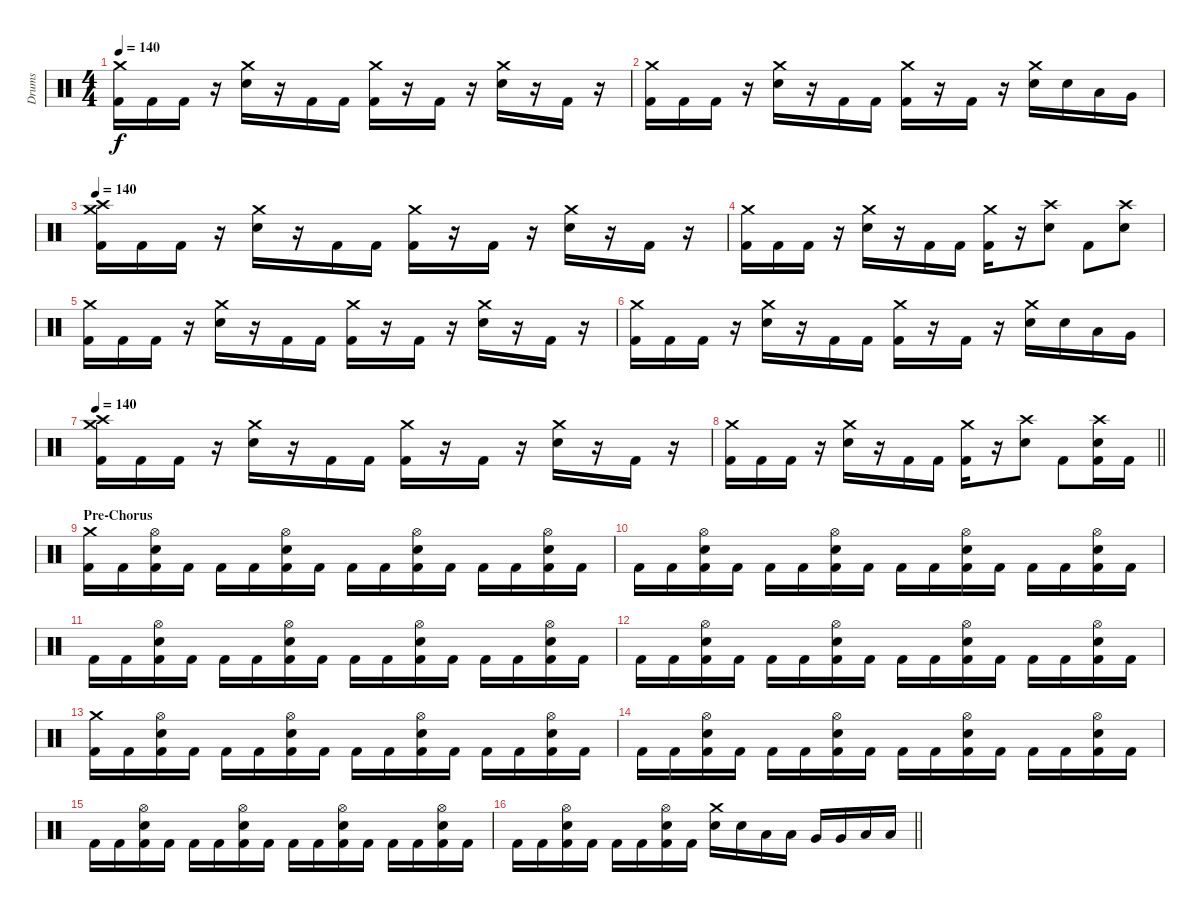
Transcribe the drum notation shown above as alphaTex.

\track ("Drums" "Drums") {instrument percussion}
\staff {score}
\articulation defaults
\ts (4 4)
\tempo 140
\clef neutral
\ks c
("Kick (hit) 2" "Crash medium (hit)").16{dy f} "Kick (hit) 2".16 "Kick (hit) 2".16 r.16 ("Snare (hit) 2" "Crash medium (hit)").16 r.16 "Kick (hit) 2".16 "Kick (hit) 2".16 ("Kick (hit) 2" "Crash medium (hit)").16 r.16 "Kick (hit) 2".16 r.16 ("Snare (hit) 2" "Crash medium (hit)").16 r.16 "Kick (hit) 2".16 r.16 |
("Kick (hit) 2" "Crash medium (hit)").16 "Kick (hit) 2".16 "Kick (hit) 2".16 r.16 ("Snare (hit) 2" "Crash medium (hit)").16 r.16 "Kick (hit) 2".16 "Kick (hit) 2".16 ("Kick (hit) 2" "Crash medium (hit)").16 r.16 "Kick (hit) 2".16 r.16 ("Snare (hit) 2" "Crash medium (hit)").16 "Snare (hit) 2".16 "Low Tom (hit)".16 "Very Low Tom (hit)".16 |
\tempo 140
("Kick (hit) 2" "Crash medium (hit)" "Crash high (hit)").16 "Kick (hit) 2".16 "Kick (hit) 2".16 r.16 ("Snare (hit) 2" "Crash medium (hit)").16 r.16 "Kick (hit) 2".16 "Kick (hit) 2".16 ("Kick (hit) 2" "Crash medium (hit)").16 r.16 "Kick (hit) 2".16 r.16 ("Snare (hit) 2" "Crash medium (hit)").16 r.16 "Kick (hit) 2".16 r.16 |
("Kick (hit) 2" "Crash medium (hit)").16 "Kick (hit) 2".16 "Kick (hit) 2".16 r.16 ("Snare (hit) 2" "Crash medium (hit)").16 r.16 "Kick (hit) 2".16 "Kick (hit) 2".16 ("Kick (hit) 2" "Crash medium (hit)").16 r.16 ("Snare (hit) 2" "Crash high (hit)").8 "Kick (hit) 2".8 ("Snare (hit) 2" "Crash high (hit)").8 |
("Kick (hit) 2" "Crash medium (hit)").16 "Kick (hit) 2".16 "Kick (hit) 2".16 r.16 ("Snare (hit) 2" "Crash medium (hit)").16 r.16 "Kick (hit) 2".16 "Kick (hit) 2".16 ("Kick (hit) 2" "Crash medium (hit)").16 r.16 "Kick (hit) 2".16 r.16 ("Snare (hit) 2" "Crash medium (hit)").16 r.16 "Kick (hit) 2".16 r.16 |
("Kick (hit) 2" "Crash medium (hit)").16 "Kick (hit) 2".16 "Kick (hit) 2".16 r.16 ("Snare (hit) 2" "Crash medium (hit)").16 r.16 "Kick (hit) 2".16 "Kick (hit) 2".16 ("Kick (hit) 2" "Crash medium (hit)").16 r.16 "Kick (hit) 2".16 r.16 ("Snare (hit) 2" "Crash medium (hit)").16 "Snare (hit) 2".16 "Low Tom (hit)".16 "Very Low Tom (hit)".16 |
\tempo 140
("Kick (hit) 2" "Crash medium (hit)" "Crash high (hit)").16 "Kick (hit) 2".16 "Kick (hit) 2".16 r.16 ("Snare (hit) 2" "Crash medium (hit)").16 r.16 "Kick (hit) 2".16 "Kick (hit) 2".16 ("Kick (hit) 2" "Crash medium (hit)").16 r.16 "Kick (hit) 2".16 r.16 ("Snare (hit) 2" "Crash medium (hit)").16 r.16 "Kick (hit) 2".16 r.16 |
\barLineRight lightlight
("Kick (hit) 2" "Crash medium (hit)").16 "Kick (hit) 2".16 "Kick (hit) 2".16 r.16 ("Snare (hit) 2" "Crash medium (hit)").16 r.16 "Kick (hit) 2".16 "Kick (hit) 2".16 ("Kick (hit) 2" "Crash medium (hit)").16 r.16 ("Snare (hit) 2" "Crash high (hit)").8 "Kick (hit) 2".8 ("Snare (hit) 2" "Kick (hit) 2" "Crash high (hit)").16 "Kick (hit) 2".16 |
\section ("" "Pre-Chorus")
("Kick (hit) 2" "Crash medium (hit)").16 "Kick (hit) 2".16 ("Snare (hit) 2" "Kick (hit) 2" "Hi-Hat (open)").16 "Kick (hit) 2".16 "Kick (hit) 2".16 "Kick (hit) 2".16 ("Snare (hit) 2" "Kick (hit) 2" "Hi-Hat (open)").16 "Kick (hit) 2".16 "Kick (hit) 2".16 "Kick (hit) 2".16 ("Snare (hit) 2" "Kick (hit) 2" "Hi-Hat (open)").16 "Kick (hit) 2".16 "Kick (hit) 2".16 "Kick (hit) 2".16 ("Snare (hit) 2" "Kick (hit) 2" "Hi-Hat (open)").16 "Kick (hit) 2".16 |
"Kick (hit) 2".16 "Kick (hit) 2".16 ("Snare (hit) 2" "Kick (hit) 2" "Hi-Hat (open)").16 "Kick (hit) 2".16 "Kick (hit) 2".16 "Kick (hit) 2".16 ("Snare (hit) 2" "Kick (hit) 2" "Hi-Hat (open)").16 "Kick (hit) 2".16 "Kick (hit) 2".16 "Kick (hit) 2".16 ("Snare (hit) 2" "Kick (hit) 2" "Hi-Hat (open)").16 "Kick (hit) 2".16 "Kick (hit) 2".16 "Kick (hit) 2".16 ("Snare (hit) 2" "Kick (hit) 2" "Hi-Hat (open)").16 "Kick (hit) 2".16 |
"Kick (hit) 2".16 "Kick (hit) 2".16 ("Snare (hit) 2" "Kick (hit) 2" "Hi-Hat (open)").16 "Kick (hit) 2".16 "Kick (hit) 2".16 "Kick (hit) 2".16 ("Snare (hit) 2" "Kick (hit) 2" "Hi-Hat (open)").16 "Kick (hit) 2".16 "Kick (hit) 2".16 "Kick (hit) 2".16 ("Snare (hit) 2" "Kick (hit) 2" "Hi-Hat (open)").16 "Kick (hit) 2".16 "Kick (hit) 2".16 "Kick (hit) 2".16 ("Snare (hit) 2" "Kick (hit) 2" "Hi-Hat (open)").16 "Kick (hit) 2".16 |
"Kick (hit) 2".16 "Kick (hit) 2".16 ("Snare (hit) 2" "Kick (hit) 2" "Hi-Hat (open)").16 "Kick (hit) 2".16 "Kick (hit) 2".16 "Kick (hit) 2".16 ("Snare (hit) 2" "Kick (hit) 2" "Hi-Hat (open)").16 "Kick (hit) 2".16 "Kick (hit) 2".16 "Kick (hit) 2".16 ("Snare (hit) 2" "Kick (hit) 2" "Hi-Hat (open)").16 "Kick (hit) 2".16 "Kick (hit) 2".16 "Kick (hit) 2".16 ("Snare (hit) 2" "Kick (hit) 2" "Hi-Hat (open)").16 "Kick (hit) 2".16 |
("Kick (hit) 2" "Crash medium (hit)").16 "Kick (hit) 2".16 ("Snare (hit) 2" "Kick (hit) 2" "Hi-Hat (open)").16 "Kick (hit) 2".16 "Kick (hit) 2".16 "Kick (hit) 2".16 ("Snare (hit) 2" "Kick (hit) 2" "Hi-Hat (open)").16 "Kick (hit) 2".16 "Kick (hit) 2".16 "Kick (hit) 2".16 ("Snare (hit) 2" "Kick (hit) 2" "Hi-Hat (open)").16 "Kick (hit) 2".16 "Kick (hit) 2".16 "Kick (hit) 2".16 ("Snare (hit) 2" "Kick (hit) 2" "Hi-Hat (open)").16 "Kick (hit) 2".16 |
"Kick (hit) 2".16 "Kick (hit) 2".16 ("Snare (hit) 2" "Kick (hit) 2" "Hi-Hat (open)").16 "Kick (hit) 2".16 "Kick (hit) 2".16 "Kick (hit) 2".16 ("Snare (hit) 2" "Kick (hit) 2" "Hi-Hat (open)").16 "Kick (hit) 2".16 "Kick (hit) 2".16 "Kick (hit) 2".16 ("Snare (hit) 2" "Kick (hit) 2" "Hi-Hat (open)").16 "Kick (hit) 2".16 "Kick (hit) 2".16 "Kick (hit) 2".16 ("Snare (hit) 2" "Kick (hit) 2" "Hi-Hat (open)").16 "Kick (hit) 2".16 |
"Kick (hit) 2".16 "Kick (hit) 2".16 ("Snare (hit) 2" "Kick (hit) 2" "Hi-Hat (open)").16 "Kick (hit) 2".16 "Kick (hit) 2".16 "Kick (hit) 2".16 ("Snare (hit) 2" "Kick (hit) 2" "Hi-Hat (open)").16 "Kick (hit) 2".16 "Kick (hit) 2".16 "Kick (hit) 2".16 ("Snare (hit) 2" "Kick (hit) 2" "Hi-Hat (open)").16 "Kick (hit) 2".16 "Kick (hit) 2".16 "Kick (hit) 2".16 ("Snare (hit) 2" "Kick (hit) 2" "Hi-Hat (open)").16 "Kick (hit) 2".16 |
\barLineRight lightlight "Kick (hit) 2".16 "Kick (hit) 2".16
("Snare (hit) 2" "Kick (hit) 2" "Hi-Hat (open)").16 "Kick (hit) 2".16 "Kick (hit) 2".16 "Kick (hit) 2".16 ("Snare (hit) 2" "Kick (hit) 2" "Hi-Hat (open)").16 "Kick (hit) 2".16 ("Snare (hit) 2" "Crash medium (hit)").16 "Snare (hit) 2".16 "Low Tom (hit)".16 "Low Tom (hit)".16 "Very Low Tom (hit)".16 "Very Low Tom (hit)".16 "Low Floor Tom (hit)".16 "Low Floor Tom (hit)".16
